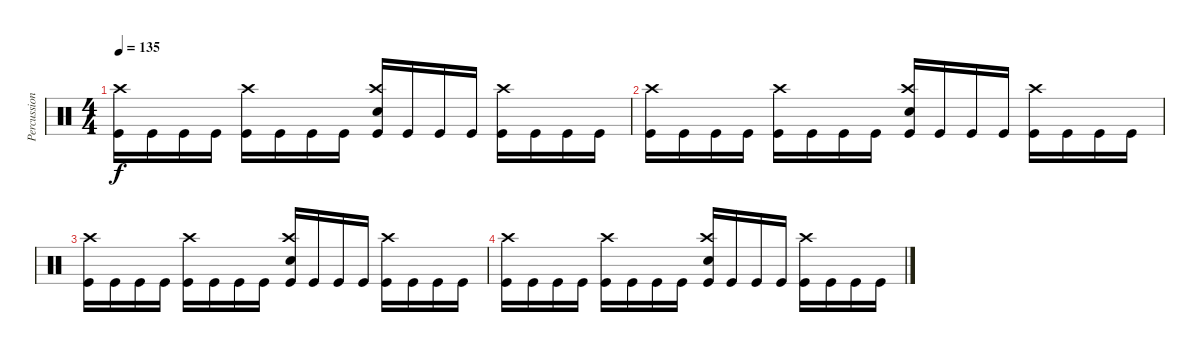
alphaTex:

\track ("Percussion" "Percussion") {instrument percussion}
\staff {score}
\articulation defaults
\ts (4 4)
\tempo 135
\clef neutral
\ks c
("Kick (hit)" "Crash high (hit)").16{dy f} "Kick (hit)".16 "Kick (hit)".16 "Kick (hit)".16 ("Kick (hit)" "Crash high (hit)").16 "Kick (hit)".16 "Kick (hit)".16 "Kick (hit)".16 ("Snare (hit) 2" "Kick (hit)" "Crash high (hit)").16 "Kick (hit)".16 "Kick (hit)".16 "Kick (hit)".16 ("Kick (hit)" "Crash high (hit)").16 "Kick (hit)".16 "Kick (hit)".16 "Kick (hit)".16 |
("Kick (hit)" "Crash high (hit)").16 "Kick (hit)".16 "Kick (hit)".16 "Kick (hit)".16 ("Kick (hit)" "Crash high (hit)").16 "Kick (hit)".16 "Kick (hit)".16 "Kick (hit)".16 ("Snare (hit) 2" "Kick (hit)" "Crash high (hit)").16 "Kick (hit)".16 "Kick (hit)".16 "Kick (hit)".16 ("Kick (hit)" "Crash high (hit)").16 "Kick (hit)".16 "Kick (hit)".16 "Kick (hit)".16 |
("Kick (hit)" "Crash high (hit)").16 "Kick (hit)".16 "Kick (hit)".16 "Kick (hit)".16 ("Kick (hit)" "Crash high (hit)").16 "Kick (hit)".16 "Kick (hit)".16 "Kick (hit)".16 ("Snare (hit) 2" "Kick (hit)" "Crash high (hit)").16 "Kick (hit)".16 "Kick (hit)".16 "Kick (hit)".16 ("Kick (hit)" "Crash high (hit)").16 "Kick (hit)".16 "Kick (hit)".16 "Kick (hit)".16 |
("Kick (hit)" "Crash high (hit)").16 "Kick (hit)".16 "Kick (hit)".16 "Kick (hit)".16 ("Kick (hit)" "Crash high (hit)").16 "Kick (hit)".16 "Kick (hit)".16 "Kick (hit)".16 ("Snare (hit) 2" "Kick (hit)" "Crash high (hit)").16 "Kick (hit)".16 "Kick (hit)".16 "Kick (hit)".16 ("Kick (hit)" "Crash high (hit)").16 "Kick (hit)".16 "Kick (hit)".16 "Kick (hit)".16
